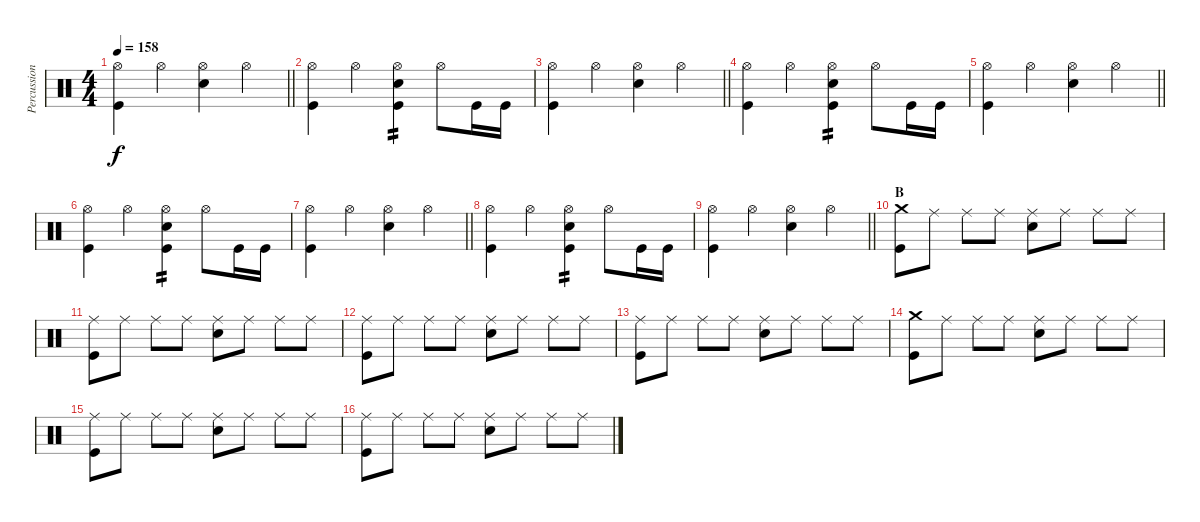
\track ("Percussion" "Percussion") {instrument percussion}
\staff {score}
\articulation defaults
\ts (4 4)
\tempo 158
\clef neutral
\barLineRight lightlight
\ks c
("Hi-Hat (open)" "Kick (hit)").4{dy f} "Hi-Hat (open)".4 ("Hi-Hat (open)" "Snare (hit) 2").4 "Hi-Hat (open)".4 |
("Hi-Hat (open)" "Kick (hit)").4 "Hi-Hat (open)".4 ("Hi-Hat (open)" "Snare (hit) 2" "Kick (hit)").4{tp 2} "Hi-Hat (open)".8 "Kick (hit)".16 "Kick (hit)".16 |
\barLineRight lightlight
("Hi-Hat (open)" "Kick (hit)").4 "Hi-Hat (open)".4 ("Hi-Hat (open)" "Snare (hit) 2").4 "Hi-Hat (open)".4 |
("Hi-Hat (open)" "Kick (hit)").4 "Hi-Hat (open)".4 ("Hi-Hat (open)" "Snare (hit) 2" "Kick (hit)").4{tp 2} "Hi-Hat (open)".8 "Kick (hit)".16 "Kick (hit)".16 |
\barLineRight lightlight
("Hi-Hat (open)" "Kick (hit)").4 "Hi-Hat (open)".4 ("Hi-Hat (open)" "Snare (hit) 2").4 "Hi-Hat (open)".4 |
("Hi-Hat (open)" "Kick (hit)").4 "Hi-Hat (open)".4 ("Hi-Hat (open)" "Snare (hit) 2" "Kick (hit)").4{tp 2} "Hi-Hat (open)".8 "Kick (hit)".16 "Kick (hit)".16 |
\barLineRight lightlight
("Hi-Hat (open)" "Kick (hit)").4 "Hi-Hat (open)".4 ("Hi-Hat (open)" "Snare (hit) 2").4 "Hi-Hat (open)".4 |
("Hi-Hat (open)" "Kick (hit)").4 "Hi-Hat (open)".4 ("Hi-Hat (open)" "Snare (hit) 2" "Kick (hit)").4{tp 2} "Hi-Hat (open)".8 "Kick (hit)".16 "Kick (hit)".16 |
\barLineRight lightlight
("Hi-Hat (open)" "Kick (hit)").4 "Hi-Hat (open)".4 ("Hi-Hat (open)" "Snare (hit) 2").4 "Hi-Hat (open)".4 |
\section ("" "B")
("Crash medium (hit)" "Kick (hit)").8 "Ride (middle)".8 "Ride (middle)".8 "Ride (middle)".8 ("Ride (middle)" "Snare (hit) 2").8 "Ride (middle)".8 "Ride (middle)".8 "Ride (middle)".8 |
("Ride (middle)" "Kick (hit)").8 "Ride (middle)".8 "Ride (middle)".8 "Ride (middle)".8 ("Ride (middle)" "Snare (hit) 2").8 "Ride (middle)".8 "Ride (middle)".8 "Ride (middle)".8 |
("Ride (middle)" "Kick (hit)").8 "Ride (middle)".8 "Ride (middle)".8 "Ride (middle)".8 ("Ride (middle)" "Snare (hit) 2").8 "Ride (middle)".8 "Ride (middle)".8 "Ride (middle)".8 |
("Ride (middle)" "Kick (hit)").8 "Ride (middle)".8 "Ride (middle)".8 "Ride (middle)".8 ("Ride (middle)" "Snare (hit) 2").8 "Ride (middle)".8 "Ride (middle)".8 "Ride (middle)".8 |
("Crash medium (hit)" "Kick (hit)").8 "Ride (middle)".8 "Ride (middle)".8 "Ride (middle)".8 ("Ride (middle)" "Snare (hit) 2").8 "Ride (middle)".8 "Ride (middle)".8 "Ride (middle)".8 |
("Ride (middle)" "Kick (hit)").8 "Ride (middle)".8 "Ride (middle)".8 "Ride (middle)".8 ("Ride (middle)" "Snare (hit) 2").8 "Ride (middle)".8 "Ride (middle)".8 "Ride (middle)".8 |
("Ride (middle)" "Kick (hit)").8 "Ride (middle)".8 "Ride (middle)".8 "Ride (middle)".8 ("Ride (middle)" "Snare (hit) 2").8 "Ride (middle)".8 "Ride (middle)".8 "Ride (middle)".8
